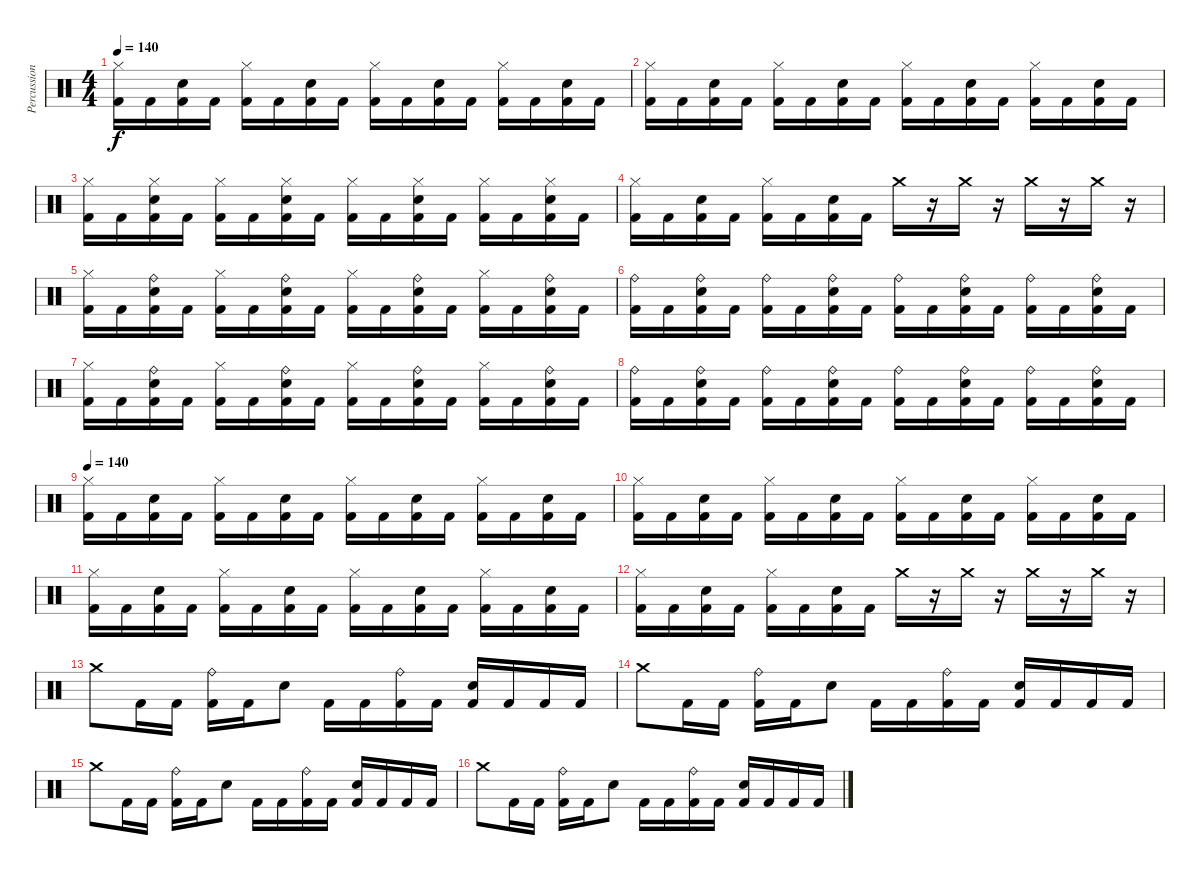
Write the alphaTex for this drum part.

\track ("Percussion" "Percussion") {instrument percussion}
\staff {score}
\articulation defaults
\ts (4 4)
\tempo 140
\clef neutral
\ks c
("Hi-Hat (closed)" "Kick (hit) 2").16{dy f} "Kick (hit) 2".16 ("Snare (hit) 2" "Kick (hit) 2").16 "Kick (hit) 2".16 ("Hi-Hat (closed)" "Kick (hit) 2").16 "Kick (hit) 2".16 ("Snare (hit) 2" "Kick (hit) 2").16 "Kick (hit) 2".16 ("Hi-Hat (closed)" "Kick (hit) 2").16 "Kick (hit) 2".16 ("Snare (hit) 2" "Kick (hit) 2").16 "Kick (hit) 2".16 ("Hi-Hat (closed)" "Kick (hit) 2").16 "Kick (hit) 2".16 ("Snare (hit) 2" "Kick (hit) 2").16 "Kick (hit) 2".16 |
("Hi-Hat (closed)" "Kick (hit) 2").16 "Kick (hit) 2".16 ("Snare (hit) 2" "Kick (hit) 2").16 "Kick (hit) 2".16 ("Hi-Hat (closed)" "Kick (hit) 2").16 "Kick (hit) 2".16 ("Snare (hit) 2" "Kick (hit) 2").16 "Kick (hit) 2".16 ("Hi-Hat (closed)" "Kick (hit) 2").16 "Kick (hit) 2".16 ("Snare (hit) 2" "Kick (hit) 2").16 "Kick (hit) 2".16 ("Hi-Hat (closed)" "Kick (hit) 2").16 "Kick (hit) 2".16 ("Snare (hit) 2" "Kick (hit) 2").16 "Kick (hit) 2".16 |
("Hi-Hat (closed)" "Kick (hit) 2").16 "Kick (hit) 2".16 ("Hi-Hat (closed)" "Snare (hit) 2" "Kick (hit) 2").16 "Kick (hit) 2".16 ("Hi-Hat (closed)" "Kick (hit) 2").16 "Kick (hit) 2".16 ("Hi-Hat (closed)" "Snare (hit) 2" "Kick (hit) 2").16 "Kick (hit) 2".16 ("Hi-Hat (closed)" "Kick (hit) 2").16 "Kick (hit) 2".16 ("Hi-Hat (closed)" "Snare (hit) 2" "Kick (hit) 2").16 "Kick (hit) 2".16 ("Hi-Hat (closed)" "Kick (hit) 2").16 "Kick (hit) 2".16 ("Hi-Hat (closed)" "Snare (hit) 2" "Kick (hit) 2").16 "Kick (hit) 2".16 |
("Hi-Hat (closed)" "Kick (hit) 2").16 "Kick (hit) 2".16 ("Snare (hit) 2" "Kick (hit) 2").16 "Kick (hit) 2".16 ("Hi-Hat (closed)" "Kick (hit) 2").16 "Kick (hit) 2".16 ("Snare (hit) 2" "Kick (hit) 2").16 "Kick (hit) 2".16 "Crash medium (hit)".16 r.16 "Crash medium (hit)".16 r.16 "Crash medium (hit)".16 r.16 "Crash medium (hit)".16 r.16 |
("Hi-Hat (closed)" "Kick (hit) 2").16 "Kick (hit) 2".16 ("Ride (bell)" "Snare (hit) 2" "Kick (hit) 2").16 "Kick (hit) 2".16 ("Hi-Hat (closed)" "Kick (hit) 2").16 "Kick (hit) 2".16 ("Ride (bell)" "Snare (hit) 2" "Kick (hit) 2").16 "Kick (hit) 2".16 ("Hi-Hat (closed)" "Kick (hit) 2").16 "Kick (hit) 2".16 ("Ride (bell)" "Snare (hit) 2" "Kick (hit) 2").16 "Kick (hit) 2".16 ("Hi-Hat (closed)" "Kick (hit) 2").16 "Kick (hit) 2".16 ("Ride (bell)" "Snare (hit) 2" "Kick (hit) 2").16 "Kick (hit) 2".16 |
("Ride (bell)" "Kick (hit) 2").16 "Kick (hit) 2".16 ("Ride (bell)" "Snare (hit) 2" "Kick (hit) 2").16 "Kick (hit) 2".16 ("Ride (bell)" "Kick (hit) 2").16 "Kick (hit) 2".16 ("Ride (bell)" "Snare (hit) 2" "Kick (hit) 2").16 "Kick (hit) 2".16 ("Ride (bell)" "Kick (hit) 2").16 "Kick (hit) 2".16 ("Ride (bell)" "Snare (hit) 2" "Kick (hit) 2").16 "Kick (hit) 2".16 ("Ride (bell)" "Kick (hit) 2").16 "Kick (hit) 2".16 ("Ride (bell)" "Snare (hit) 2" "Kick (hit) 2").16 "Kick (hit) 2".16 |
("Hi-Hat (closed)" "Kick (hit) 2").16 "Kick (hit) 2".16 ("Ride (bell)" "Snare (hit) 2" "Kick (hit) 2").16 "Kick (hit) 2".16 ("Hi-Hat (closed)" "Kick (hit) 2").16 "Kick (hit) 2".16 ("Ride (bell)" "Snare (hit) 2" "Kick (hit) 2").16 "Kick (hit) 2".16 ("Hi-Hat (closed)" "Kick (hit) 2").16 "Kick (hit) 2".16 ("Ride (bell)" "Snare (hit) 2" "Kick (hit) 2").16 "Kick (hit) 2".16 ("Hi-Hat (closed)" "Kick (hit) 2").16 "Kick (hit) 2".16 ("Ride (bell)" "Snare (hit) 2" "Kick (hit) 2").16 "Kick (hit) 2".16 |
("Ride (bell)" "Kick (hit) 2").16 "Kick (hit) 2".16 ("Ride (bell)" "Snare (hit) 2" "Kick (hit) 2").16 "Kick (hit) 2".16 ("Ride (bell)" "Kick (hit) 2").16 "Kick (hit) 2".16 ("Ride (bell)" "Snare (hit) 2" "Kick (hit) 2").16 "Kick (hit) 2".16 ("Ride (bell)" "Kick (hit) 2").16 "Kick (hit) 2".16 ("Ride (bell)" "Snare (hit) 2" "Kick (hit) 2").16 "Kick (hit) 2".16 ("Ride (bell)" "Kick (hit) 2").16 "Kick (hit) 2".16 ("Ride (bell)" "Snare (hit) 2" "Kick (hit) 2").16 "Kick (hit) 2".16 |
\tempo 140
("Hi-Hat (closed)" "Kick (hit) 2").16 "Kick (hit) 2".16 ("Snare (hit) 2" "Kick (hit) 2").16 "Kick (hit) 2".16 ("Hi-Hat (closed)" "Kick (hit) 2").16 "Kick (hit) 2".16 ("Snare (hit) 2" "Kick (hit) 2").16 "Kick (hit) 2".16 ("Hi-Hat (closed)" "Kick (hit) 2").16 "Kick (hit) 2".16 ("Snare (hit) 2" "Kick (hit) 2").16 "Kick (hit) 2".16 ("Hi-Hat (closed)" "Kick (hit) 2").16 "Kick (hit) 2".16 ("Snare (hit) 2" "Kick (hit) 2").16 "Kick (hit) 2".16 |
("Hi-Hat (closed)" "Kick (hit) 2").16 "Kick (hit) 2".16 ("Snare (hit) 2" "Kick (hit) 2").16 "Kick (hit) 2".16 ("Hi-Hat (closed)" "Kick (hit) 2").16 "Kick (hit) 2".16 ("Snare (hit) 2" "Kick (hit) 2").16 "Kick (hit) 2".16 ("Hi-Hat (closed)" "Kick (hit) 2").16 "Kick (hit) 2".16 ("Snare (hit) 2" "Kick (hit) 2").16 "Kick (hit) 2".16 ("Hi-Hat (closed)" "Kick (hit) 2").16 "Kick (hit) 2".16 ("Snare (hit) 2" "Kick (hit) 2").16 "Kick (hit) 2".16 |
("Hi-Hat (closed)" "Kick (hit) 2").16 "Kick (hit) 2".16 ("Snare (hit) 2" "Kick (hit) 2").16 "Kick (hit) 2".16 ("Hi-Hat (closed)" "Kick (hit) 2").16 "Kick (hit) 2".16 ("Snare (hit) 2" "Kick (hit) 2").16 "Kick (hit) 2".16 ("Hi-Hat (closed)" "Kick (hit) 2").16 "Kick (hit) 2".16 ("Snare (hit) 2" "Kick (hit) 2").16 "Kick (hit) 2".16 ("Hi-Hat (closed)" "Kick (hit) 2").16 "Kick (hit) 2".16 ("Snare (hit) 2" "Kick (hit) 2").16 "Kick (hit) 2".16 |
("Hi-Hat (closed)" "Kick (hit) 2").16 "Kick (hit) 2".16 ("Snare (hit) 2" "Kick (hit) 2").16 "Kick (hit) 2".16 ("Hi-Hat (closed)" "Kick (hit) 2").16 "Kick (hit) 2".16 ("Snare (hit) 2" "Kick (hit) 2").16 "Kick (hit) 2".16 "Crash medium (hit)".16 r.16 "Crash medium (hit)".16 r.16 "Crash medium (hit)".16 r.16 "Crash medium (hit)".16 r.16 |
"Crash medium (hit)".8 "Kick (hit) 2".16 "Kick (hit) 2".16 ("Ride (bell)" "Kick (hit) 2").16 "Kick (hit) 2".16 "Snare (hit) 2".8 "Kick (hit) 2".16 "Kick (hit) 2".16 ("Ride (bell)" "Kick (hit) 2").16 "Kick (hit) 2".16 ("Snare (hit) 2" "Kick (hit) 2").16 "Kick (hit) 2".16 "Kick (hit) 2".16 "Kick (hit) 2".16 |
"Crash medium (hit)".8 "Kick (hit) 2".16 "Kick (hit) 2".16 ("Ride (bell)" "Kick (hit) 2").16 "Kick (hit) 2".16 "Snare (hit) 2".8 "Kick (hit) 2".16 "Kick (hit) 2".16 ("Ride (bell)" "Kick (hit) 2").16 "Kick (hit) 2".16 ("Snare (hit) 2" "Kick (hit) 2").16 "Kick (hit) 2".16 "Kick (hit) 2".16 "Kick (hit) 2".16 |
"Crash medium (hit)".8 "Kick (hit) 2".16 "Kick (hit) 2".16 ("Ride (bell)" "Kick (hit) 2").16 "Kick (hit) 2".16 "Snare (hit) 2".8 "Kick (hit) 2".16 "Kick (hit) 2".16 ("Ride (bell)" "Kick (hit) 2").16 "Kick (hit) 2".16 ("Snare (hit) 2" "Kick (hit) 2").16 "Kick (hit) 2".16 "Kick (hit) 2".16 "Kick (hit) 2".16 |
"Crash medium (hit)".8 "Kick (hit) 2".16 "Kick (hit) 2".16 ("Ride (bell)" "Kick (hit) 2").16 "Kick (hit) 2".16 "Snare (hit) 2".8 "Kick (hit) 2".16 "Kick (hit) 2".16 ("Ride (bell)" "Kick (hit) 2").16 "Kick (hit) 2".16 ("Snare (hit) 2" "Kick (hit) 2").16 "Kick (hit) 2".16 "Kick (hit) 2".16 "Kick (hit) 2".16
